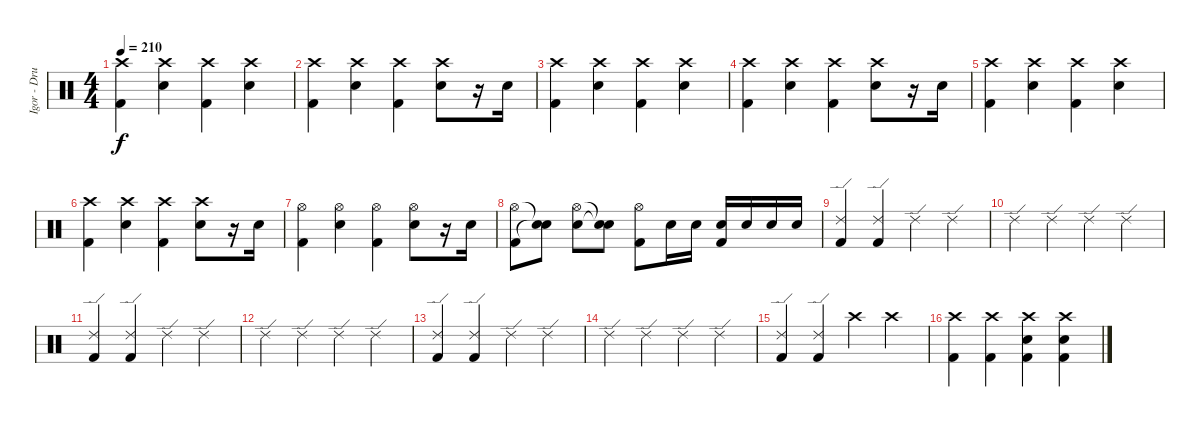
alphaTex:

\track ("Igor - Drums" "Igor - Dru") {instrument percussion}
\staff {score}
\articulation defaults
\ts (4 4)
\tempo 210
\clef neutral
\ks c
("Crash high (hit)" "Kick (hit) 2").4{dy f} ("Crash high (hit)" "Snare (hit) 2").4 ("Crash high (hit)" "Kick (hit) 2").4 ("Crash high (hit)" "Snare (hit) 2").4 |
("Crash high (hit)" "Kick (hit) 2").4 ("Crash high (hit)" "Snare (hit) 2").4 ("Crash high (hit)" "Kick (hit) 2").4 ("Crash high (hit)" "Snare (hit) 2").8 r.16 "Snare (hit) 2".16 |
("Crash high (hit)" "Kick (hit) 2").4 ("Crash high (hit)" "Snare (hit) 2").4 ("Crash high (hit)" "Kick (hit) 2").4 ("Crash high (hit)" "Snare (hit) 2").4 |
("Crash high (hit)" "Kick (hit) 2").4 ("Crash high (hit)" "Snare (hit) 2").4 ("Crash high (hit)" "Kick (hit) 2").4 ("Crash high (hit)" "Snare (hit) 2").8 r.16 "Snare (hit) 2".16 |
("Crash high (hit)" "Kick (hit) 2").4 ("Crash high (hit)" "Snare (hit) 2").4 ("Crash high (hit)" "Kick (hit) 2").4 ("Crash high (hit)" "Snare (hit) 2").4 |
("Crash high (hit)" "Kick (hit) 2").4 ("Crash high (hit)" "Snare (hit) 2").4 ("Crash high (hit)" "Kick (hit) 2").4 ("Crash high (hit)" "Snare (hit) 2").8 r.16 "Snare (hit) 2".16 |
("Hi-Hat (open)" "Kick (hit) 2").4 ("Hi-Hat (open)" "Snare (hit) 2").4 ("Hi-Hat (open)" "Kick (hit) 2").4 ("Hi-Hat (open)" "Snare (hit) 2").8 r.16 "Snare (hit) 2".16 |
("Hi-Hat (open)" "Kick (hit) 2").8 ("Snare (hit)"{t} "Snare (hit)"{t}).8 ("Hi-Hat (open)" "Snare (hit) 2").8 ("Snare (hit)"{t} "Snare (hit)"{t}).8 ("Hi-Hat (open)" "Kick (hit) 2").8 "Snare (hit) 2".16 "Snare (hit) 2".16 ("Snare (hit) 2" "Kick (hit) 2").16 "Snare (hit) 2".16 "Snare (hit) 2".16 "Snare (hit) 2".16 |
("Ride (edge) 2" "Kick (hit) 2").4 ("Ride (edge) 2" "Kick (hit) 2").4 "Ride (edge) 2".4 "Ride (edge) 2".4 |
"Ride (edge) 2".4 "Ride (edge) 2".4 "Ride (edge) 2".4 "Ride (edge) 2".4 |
("Ride (edge) 2" "Kick (hit) 2").4 ("Ride (edge) 2" "Kick (hit) 2").4 "Ride (edge) 2".4 "Ride (edge) 2".4 |
"Ride (edge) 2".4 "Ride (edge) 2".4 "Ride (edge) 2".4 "Ride (edge) 2".4 |
("Ride (edge) 2" "Kick (hit) 2").4 ("Ride (edge) 2" "Kick (hit) 2").4 "Ride (edge) 2".4 "Ride (edge) 2".4 |
"Ride (edge) 2".4 "Ride (edge) 2".4 "Ride (edge) 2".4 "Ride (edge) 2".4 |
("Ride (edge) 2" "Kick (hit) 2").4 ("Ride (edge) 2" "Kick (hit) 2").4 "Crash high (hit)".4 "Crash high (hit)".4 |
("Crash high (hit)" "Kick (hit) 2").4 ("Crash high (hit)" "Kick (hit) 2").4 ("Crash high (hit)" "Snare (hit) 2" "Kick (hit) 2").4 ("Crash high (hit)" "Snare (hit) 2" "Kick (hit) 2").4
